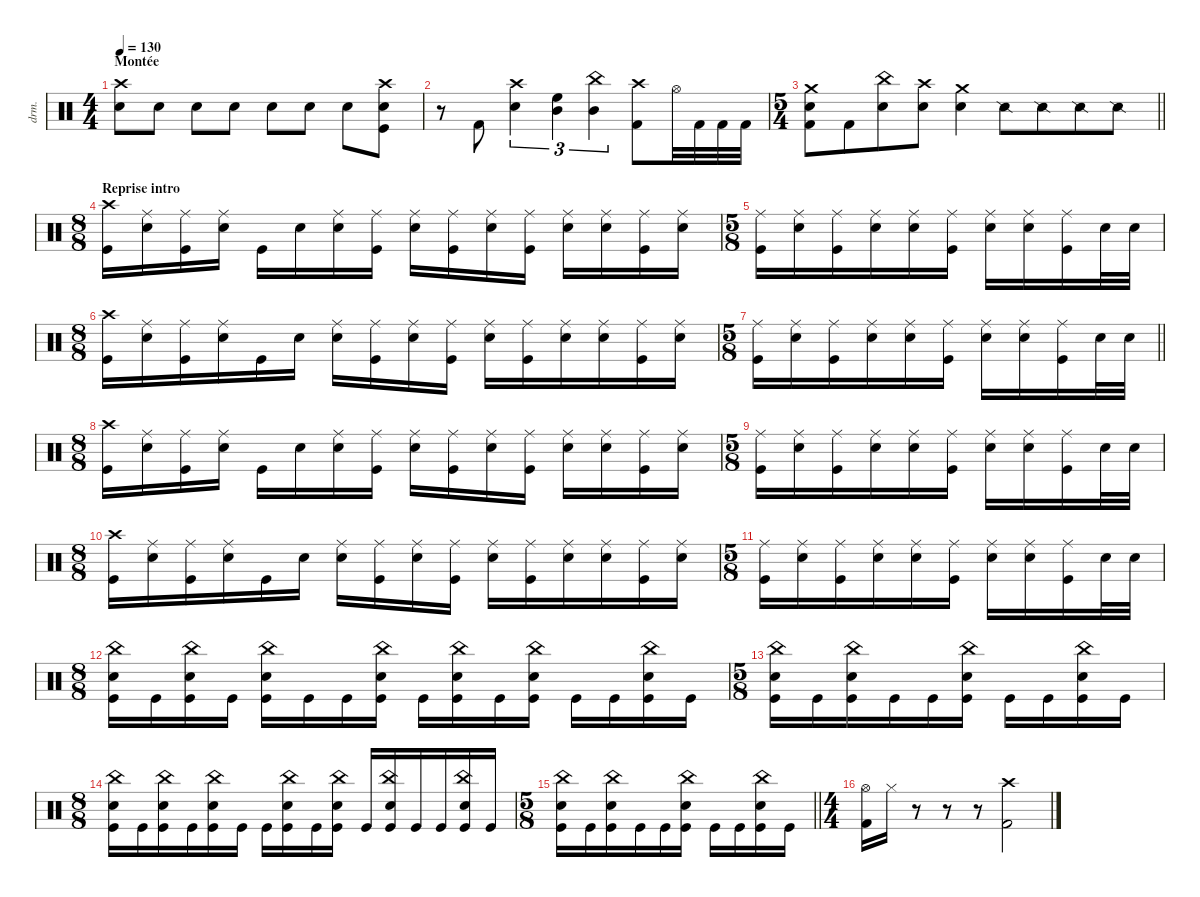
\defaultSystemsLayout 4
\hideDynamics
\bracketExtendMode nobrackets
\track ("Manouche" "drm.") {solo instrument percussion}
\staff {score}
\articulation defaults
\ts (4 4)
\section ("" "Montée")
\tempo 130
\clef neutral
\ks c
("Crash high (hit)" "Snare (hit) 2").8{dy mf beam Down} "Snare (hit) 2".8{dy mp beam Down} "Snare (hit) 2".8{beam Down} "Snare (hit) 2".8{beam Down} "Snare (hit) 2".8{dy mf beam Down} "Snare (hit) 2".8{beam Down} "Snare (hit) 2".8{dy f beam Down} ("Crash high (hit)" "Kick (hit)" "Snare (hit) 2").8{beam Down} |
r.8{beam Down} "Kick (hit) 2".8{dy ff beam Up} ("Snare (hit) 2" "Crash high (hit)").4{tu (3 2) beam Down} ("Mid Tom (hit)" "High Floor Tom (hit)").4{tu (3 2) beam Down} ("Mid Tom (hit)" "China (hit)").4{tu (3 2) beam Down} ("Crash high (hit)" "Kick (hit) 2").8{dy f beam Down} "Hi-Hat (open)".32{dy ff beam Down} "Kick (hit) 2".32{dy f beam Down} "Kick (hit) 2".32{beam Down} "Kick (hit) 2".32{beam Down} |
\ts (5 4)
\beaming (8 6 4)
\barLineRight lightlight
("Kick (hit) 2" "Snare (hit) 2" "Crash medium (hit)").8{dy ff beam Down} "Kick (hit) 2".8{dy f beam Down} ("Snare (hit) 2" "China (hit)").8{beam Down} ("Snare (hit) 2" "Crash high (hit)").8{beam Down} ("Snare (hit) 2" "Crash medium (hit)").4{beam Down} "Snare (side stick) 2".8{beam Down} "Snare (side stick) 2".8{beam Down} "Snare (side stick) 2".8{beam Down} "Snare (side stick) 2".8{beam Down} |
\ts (8 8)
\beaming (8 2 2 2 2)
\section ("" "Reprise intro")
("Crash high (hit)" "Kick (hit)").16{beam Down} ("Snare (hit) 2" "Ride (middle)").16{beam Down} ("Kick (hit)" "Ride (middle)").16{beam Down} ("Snare (hit) 2" "Ride (middle)").16{beam Down} "Kick (hit)".16{beam Down} "Snare (hit) 2".16{beam Down} ("Snare (hit) 2" "Ride (middle)").16{beam Down} ("Kick (hit)" "Ride (middle)").16{beam Down} ("Snare (hit) 2" "Ride (middle)").16{beam Down} ("Kick (hit)" "Ride (middle)").16{beam Down} ("Snare (hit) 2" "Ride (middle)").16{beam Down} ("Ride (middle)" "Kick (hit)").16{beam Down} ("Snare (hit) 2" "Ride (middle)").16{beam Down} ("Snare (hit) 2" "Ride (middle)").16{beam Down} ("Kick (hit)" "Ride (middle)").16{beam Down} ("Snare (hit) 2" "Ride (middle)").16{beam Down} |
\ts (5 8)
\beaming (8 3 2)
("Kick (hit)" "Ride (middle)").16{beam Down} ("Snare (hit) 2" "Ride (middle)").16{beam Down} ("Kick (hit)" "Ride (middle)").16{beam Down} ("Snare (hit) 2" "Ride (middle)").16{beam Down} ("Snare (hit) 2" "Ride (middle)").16{beam Down} ("Kick (hit)" "Ride (middle)").16{beam Down} ("Snare (hit) 2" "Ride (middle)").16{beam Down} ("Snare (hit) 2" "Ride (middle)").16{beam Down} ("Kick (hit)" "Ride (middle)").16{beam Down} "Snare (hit) 2".32{beam Down} "Snare (hit) 2".32{beam Down} |
\ts (8 8)
\beaming (8 3 2 3)
("Crash high (hit)" "Kick (hit)").16{beam Down} ("Snare (hit) 2" "Ride (middle)").16{beam Down} ("Kick (hit)" "Ride (middle)").16{beam Down} ("Snare (hit) 2" "Ride (middle)").16{beam Down} "Kick (hit)".16{beam Down} "Snare (hit) 2".16{beam Down} ("Snare (hit) 2" "Ride (middle)").16{beam Down} ("Kick (hit)" "Ride (middle)").16{beam Down} ("Snare (hit) 2" "Ride (middle)").16{beam Down} ("Kick (hit)" "Ride (middle)").16{beam Down} ("Snare (hit) 2" "Ride (middle)").16{beam Down} ("Ride (middle)" "Kick (hit)").16{beam Down} ("Snare (hit) 2" "Ride (middle)").16{beam Down} ("Snare (hit) 2" "Ride (middle)").16{beam Down} ("Kick (hit)" "Ride (middle)").16{beam Down} ("Snare (hit) 2" "Ride (middle)").16{beam Down} |
\ts (5 8)
\beaming (8 3 2)
\barLineRight lightlight
("Kick (hit)" "Ride (middle)").16{beam Down} ("Snare (hit) 2" "Ride (middle)").16{beam Down} ("Kick (hit)" "Ride (middle)").16{beam Down} ("Snare (hit) 2" "Ride (middle)").16{beam Down} ("Snare (hit) 2" "Ride (middle)").16{beam Down} ("Kick (hit)" "Ride (middle)").16{beam Down} ("Snare (hit) 2" "Ride (middle)").16{beam Down} ("Snare (hit) 2" "Ride (middle)").16{beam Down} ("Kick (hit)" "Ride (middle)").16{beam Down} "Snare (hit) 2".32{beam Down} "Snare (hit) 2".32{beam Down} |
\ts (8 8)
\beaming (8 2 2 2 2)
("Crash high (hit)" "Kick (hit)").16{beam Down} ("Snare (hit) 2" "Ride (middle)").16{beam Down} ("Kick (hit)" "Ride (middle)").16{beam Down} ("Snare (hit) 2" "Ride (middle)").16{beam Down} "Kick (hit)".16{beam Down} "Snare (hit) 2".16{beam Down} ("Snare (hit) 2" "Ride (middle)").16{beam Down} ("Kick (hit)" "Ride (middle)").16{beam Down} ("Snare (hit) 2" "Ride (middle)").16{beam Down} ("Kick (hit)" "Ride (middle)").16{beam Down} ("Snare (hit) 2" "Ride (middle)").16{beam Down} ("Ride (middle)" "Kick (hit)").16{beam Down} ("Snare (hit) 2" "Ride (middle)").16{beam Down} ("Snare (hit) 2" "Ride (middle)").16{beam Down} ("Kick (hit)" "Ride (middle)").16{beam Down} ("Snare (hit) 2" "Ride (middle)").16{beam Down} |
\ts (5 8)
\beaming (8 3 2)
("Kick (hit)" "Ride (middle)").16{beam Down} ("Snare (hit) 2" "Ride (middle)").16{beam Down} ("Kick (hit)" "Ride (middle)").16{beam Down} ("Snare (hit) 2" "Ride (middle)").16{beam Down} ("Snare (hit) 2" "Ride (middle)").16{beam Down} ("Kick (hit)" "Ride (middle)").16{beam Down} ("Snare (hit) 2" "Ride (middle)").16{beam Down} ("Snare (hit) 2" "Ride (middle)").16{beam Down} ("Kick (hit)" "Ride (middle)").16{beam Down} "Snare (hit) 2".32{beam Down} "Snare (hit) 2".32{beam Down} |
\ts (8 8)
\beaming (8 3 2 3)
("Crash high (hit)" "Kick (hit)").16{beam Down} ("Snare (hit) 2" "Ride (middle)").16{beam Down} ("Kick (hit)" "Ride (middle)").16{beam Down} ("Snare (hit) 2" "Ride (middle)").16{beam Down} "Kick (hit)".16{beam Down} "Snare (hit) 2".16{beam Down} ("Snare (hit) 2" "Ride (middle)").16{beam Down} ("Kick (hit)" "Ride (middle)").16{beam Down} ("Snare (hit) 2" "Ride (middle)").16{beam Down} ("Kick (hit)" "Ride (middle)").16{beam Down} ("Snare (hit) 2" "Ride (middle)").16{beam Down} ("Ride (middle)" "Kick (hit)").16{beam Down} ("Snare (hit) 2" "Ride (middle)").16{beam Down} ("Snare (hit) 2" "Ride (middle)").16{beam Down} ("Kick (hit)" "Ride (middle)").16{beam Down} ("Snare (hit) 2" "Ride (middle)").16{beam Down} |
\ts (5 8)
\beaming (8 3 2)
("Kick (hit)" "Ride (middle)").16{beam Down} ("Snare (hit) 2" "Ride (middle)").16{beam Down} ("Kick (hit)" "Ride (middle)").16{beam Down} ("Snare (hit) 2" "Ride (middle)").16{beam Down} ("Snare (hit) 2" "Ride (middle)").16{beam Down} ("Kick (hit)" "Ride (middle)").16{beam Down} ("Snare (hit) 2" "Ride (middle)").16{beam Down} ("Snare (hit) 2" "Ride (middle)").16{beam Down} ("Kick (hit)" "Ride (middle)").16{beam Down} "Snare (hit) 2".32{beam Down} "Snare (hit) 2".32{beam Down} |
\ts (8 8)
\beaming (8 2 2 2 2)
("Snare (hit) 2" "China (hit)" "Kick (hit)").16{beam Down} "Kick (hit)".16{beam Down} ("Kick (hit)" "Snare (hit) 2" "China (hit)").16{beam Down} "Kick (hit)".16{beam Down} ("Kick (hit)" "Snare (hit) 2" "China (hit)").16{beam Down} "Kick (hit)".16{beam Down} "Kick (hit)".16{beam Down} ("Kick (hit)" "Snare (hit) 2" "China (hit)").16{beam Down} "Kick (hit)".16{beam Down} ("Kick (hit)" "Snare (hit) 2" "China (hit)").16{beam Down} "Kick (hit)".16{beam Down} ("Kick (hit)" "Snare (hit) 2" "China (hit)").16{beam Down} "Kick (hit)".16{beam Down} "Kick (hit)".16{beam Down} ("Kick (hit)" "Snare (hit) 2" "China (hit)").16{beam Down} "Kick (hit)".16{beam Down} |
\ts (5 8)
\beaming (8 3 2)
("Kick (hit)" "Snare (hit) 2" "China (hit)").16{beam Down} "Kick (hit)".16{beam Down} ("Kick (hit)" "Snare (hit) 2" "China (hit)").16{beam Down} "Kick (hit)".16{beam Down} "Kick (hit)".16{beam Down} ("Kick (hit)" "Snare (hit) 2" "China (hit)").16{beam Down} "Kick (hit)".16{beam Down} "Kick (hit)".16{beam Down} ("Kick (hit)" "Snare (hit) 2" "China (hit)").16{beam Down} "Kick (hit)".16{beam Down} |
\ts (8 8)
\beaming (8 3 2 3)
("Snare (hit) 2" "China (hit)" "Kick (hit)").16{beam Down} "Kick (hit)".16{beam Down} ("Kick (hit)" "Snare (hit) 2" "China (hit)").16{beam Down} "Kick (hit)".16{beam Down} ("Kick (hit)" "Snare (hit) 2" "China (hit)").16{beam Down} "Kick (hit)".16{beam Down} "Kick (hit)".16{beam Down} ("Kick (hit)" "Snare (hit) 2" "China (hit)").16{beam Down} "Kick (hit)".16{beam Down} ("Kick (hit)" "Snare (hit) 2" "China (hit)").16{beam Down} "Kick (hit)".16{beam Up} ("Kick (hit)" "Snare (hit) 2" "China (hit)").16{beam Up} "Kick (hit)".16{beam Up} "Kick (hit)".16{beam Up} ("Kick (hit)" "Snare (hit) 2" "China (hit)").16{beam Up} "Kick (hit)".16{beam Up} |
\ts (5 8)
\beaming (8 3 2)
\barLineRight lightlight
("Kick (hit)" "Snare (hit) 2" "China (hit)").16{beam Down} "Kick (hit)".16{beam Down} ("Kick (hit)" "Snare (hit) 2" "China (hit)").16{beam Down} "Kick (hit)".16{beam Down} "Kick (hit)".16{beam Down} ("Kick (hit)" "Snare (hit) 2" "China (hit)").16{beam Down} "Kick (hit)".16{beam Down} "Kick (hit)".16{beam Down} ("Kick (hit)" "Snare (hit) 2" "China (hit)").16{beam Down} "Kick (hit)".16{beam Down} |
\ts (4 4)
\beaming (8 2 2 2 2)
("Kick (hit) 2" "Hi-Hat (open)").16{beam Down} "Hi-Hat (closed)".16{beam Down} r.8{beam Down} r.8{beam Down} r.8{beam Down} ("Kick (hit) 2" "Crash high (hit)").2{dy ff beam Down}
